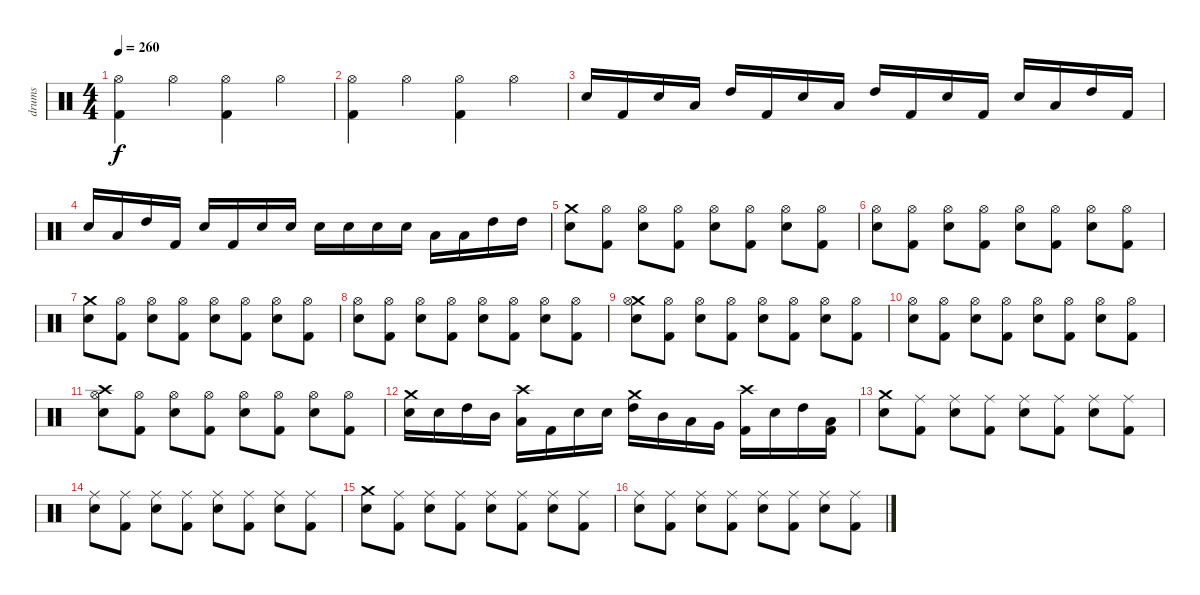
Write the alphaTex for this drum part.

\track ("drums" "drums") {instrument percussion}
\staff {score}
\articulation defaults
\ts (4 4)
\tempo 260
\clef neutral
\ks c
("Hi-Hat (open)" "Kick (hit) 2").4{dy f} "Hi-Hat (open)".4 ("Hi-Hat (open)" "Kick (hit) 2").4 "Hi-Hat (open)".4 |
("Hi-Hat (open)" "Kick (hit) 2").4 "Hi-Hat (open)".4 ("Hi-Hat (open)" "Kick (hit) 2").4 "Hi-Hat (open)".4 |
"Electric Snare (hit)".16 "Kick (hit) 2".16 "Electric Snare (hit)".16 "Low Tom (hit)".16 "High Tom (hit)".16 "Kick (hit) 2".16 "Electric Snare (hit)".16 "Low Tom (hit)".16 "High Tom (hit)".16 "Kick (hit) 2".16 "Electric Snare (hit)".16 "Kick (hit) 2".16 "Electric Snare (hit)".16 "Low Tom (hit)".16 "High Tom (hit)".16 "Kick (hit) 2".16 |
"Electric Snare (hit)".16 "Low Tom (hit)".16 "High Tom (hit)".16 "Kick (hit) 2".16 "Electric Snare (hit)".16 "Kick (hit) 2".16 "Electric Snare (hit)".16 "Electric Snare (hit)".16 "Electric Snare (hit)".16 "Electric Snare (hit)".16 "Electric Snare (hit)".16 "Electric Snare (hit)".16 "Low Tom (hit)".16 "Low Tom (hit)".16 "High Tom (hit)".16 "High Tom (hit)".16 |
("Crash medium (hit)" "Electric Snare (hit)").8 ("Hi-Hat (open)" "Kick (hit) 2").8 ("Hi-Hat (open)" "Electric Snare (hit)").8 ("Hi-Hat (open)" "Kick (hit) 2").8 ("Hi-Hat (open)" "Electric Snare (hit)").8 ("Hi-Hat (open)" "Kick (hit) 2").8 ("Hi-Hat (open)" "Electric Snare (hit)").8 ("Hi-Hat (open)" "Kick (hit) 2").8 |
("Hi-Hat (open)" "Electric Snare (hit)").8 ("Hi-Hat (open)" "Kick (hit) 2").8 ("Hi-Hat (open)" "Electric Snare (hit)").8 ("Hi-Hat (open)" "Kick (hit) 2").8 ("Hi-Hat (open)" "Electric Snare (hit)").8 ("Hi-Hat (open)" "Kick (hit) 2").8 ("Hi-Hat (open)" "Electric Snare (hit)").8 ("Hi-Hat (open)" "Kick (hit) 2").8 |
("Crash medium (hit)" "Electric Snare (hit)").8 ("Hi-Hat (open)" "Kick (hit) 2").8 ("Hi-Hat (open)" "Electric Snare (hit)").8 ("Hi-Hat (open)" "Kick (hit) 2").8 ("Hi-Hat (open)" "Electric Snare (hit)").8 ("Hi-Hat (open)" "Kick (hit) 2").8 ("Hi-Hat (open)" "Electric Snare (hit)").8 ("Hi-Hat (open)" "Kick (hit) 2").8 |
("Hi-Hat (open)" "Electric Snare (hit)").8 ("Hi-Hat (open)" "Kick (hit) 2").8 ("Hi-Hat (open)" "Electric Snare (hit)").8 ("Hi-Hat (open)" "Kick (hit) 2").8 ("Hi-Hat (open)" "Electric Snare (hit)").8 ("Hi-Hat (open)" "Kick (hit) 2").8 ("Hi-Hat (open)" "Electric Snare (hit)").8 ("Hi-Hat (open)" "Kick (hit) 2").8 |
("Crash medium (hit)" "Hi-Hat (open)" "Electric Snare (hit)").8 ("Hi-Hat (open)" "Kick (hit) 2").8 ("Hi-Hat (open)" "Electric Snare (hit)").8 ("Hi-Hat (open)" "Kick (hit) 2").8 ("Hi-Hat (open)" "Electric Snare (hit)").8 ("Hi-Hat (open)" "Kick (hit) 2").8 ("Hi-Hat (open)" "Electric Snare (hit)").8 ("Hi-Hat (open)" "Kick (hit) 2").8 |
("Hi-Hat (open)" "Electric Snare (hit)").8 ("Hi-Hat (open)" "Kick (hit) 2").8 ("Hi-Hat (open)" "Electric Snare (hit)").8 ("Hi-Hat (open)" "Kick (hit) 2").8 ("Hi-Hat (open)" "Electric Snare (hit)").8 ("Hi-Hat (open)" "Kick (hit) 2").8 ("Hi-Hat (open)" "Electric Snare (hit)").8 ("Hi-Hat (open)" "Kick (hit) 2").8 |
("Crash high (hit)" "Hi-Hat (open)" "Electric Snare (hit)").8 ("Hi-Hat (open)" "Kick (hit) 2").8 ("Hi-Hat (open)" "Electric Snare (hit)").8 ("Hi-Hat (open)" "Kick (hit) 2").8 ("Hi-Hat (open)" "Electric Snare (hit)").8 ("Hi-Hat (open)" "Kick (hit) 2").8 ("Hi-Hat (open)" "Electric Snare (hit)").8 ("Hi-Hat (open)" "Kick (hit) 2").8 |
("Crash medium (hit)" "Electric Snare (hit)").16 "Electric Snare (hit)".16 "High Tom (hit)".16 "Mid Tom (hit)".16 ("Crash high (hit)" "Low Tom (hit)").16 "Kick (hit) 2".16 "Electric Snare (hit)".16 "Electric Snare (hit)".16 ("Crash medium (hit)" "High Tom (hit)").16 "Mid Tom (hit)".16 "Low Tom (hit)".16 "Very Low Tom (hit)".16 ("Crash high (hit)" "Kick (hit) 2").16 "Electric Snare (hit)".16 "High Tom (hit)".16 ("Low Tom (hit)" "Kick (hit) 2").16 |
("Crash medium (hit)" "Electric Snare (hit)").8 ("Ride (middle)" "Kick (hit) 2").8 ("Ride (middle)" "Electric Snare (hit)").8 ("Ride (middle)" "Kick (hit) 2").8 ("Ride (middle)" "Electric Snare (hit)").8 ("Ride (middle)" "Kick (hit) 2").8 ("Ride (middle)" "Electric Snare (hit)").8 ("Ride (middle)" "Kick (hit) 2").8 |
("Ride (middle)" "Electric Snare (hit)").8 ("Ride (middle)" "Kick (hit) 2").8 ("Ride (middle)" "Electric Snare (hit)").8 ("Ride (middle)" "Kick (hit) 2").8 ("Ride (middle)" "Electric Snare (hit)").8 ("Ride (middle)" "Kick (hit) 2").8 ("Ride (middle)" "Electric Snare (hit)").8 ("Ride (middle)" "Kick (hit) 2").8 |
("Crash medium (hit)" "Electric Snare (hit)").8 ("Ride (middle)" "Kick (hit) 2").8 ("Ride (middle)" "Electric Snare (hit)").8 ("Ride (middle)" "Kick (hit) 2").8 ("Ride (middle)" "Electric Snare (hit)").8 ("Ride (middle)" "Kick (hit) 2").8 ("Ride (middle)" "Electric Snare (hit)").8 ("Ride (middle)" "Kick (hit) 2").8 |
("Ride (middle)" "Electric Snare (hit)").8 ("Ride (middle)" "Kick (hit) 2").8 ("Ride (middle)" "Electric Snare (hit)").8 ("Ride (middle)" "Kick (hit) 2").8 ("Ride (middle)" "Electric Snare (hit)").8 ("Ride (middle)" "Kick (hit) 2").8 ("Ride (middle)" "Electric Snare (hit)").8 ("Ride (middle)" "Kick (hit) 2").8
